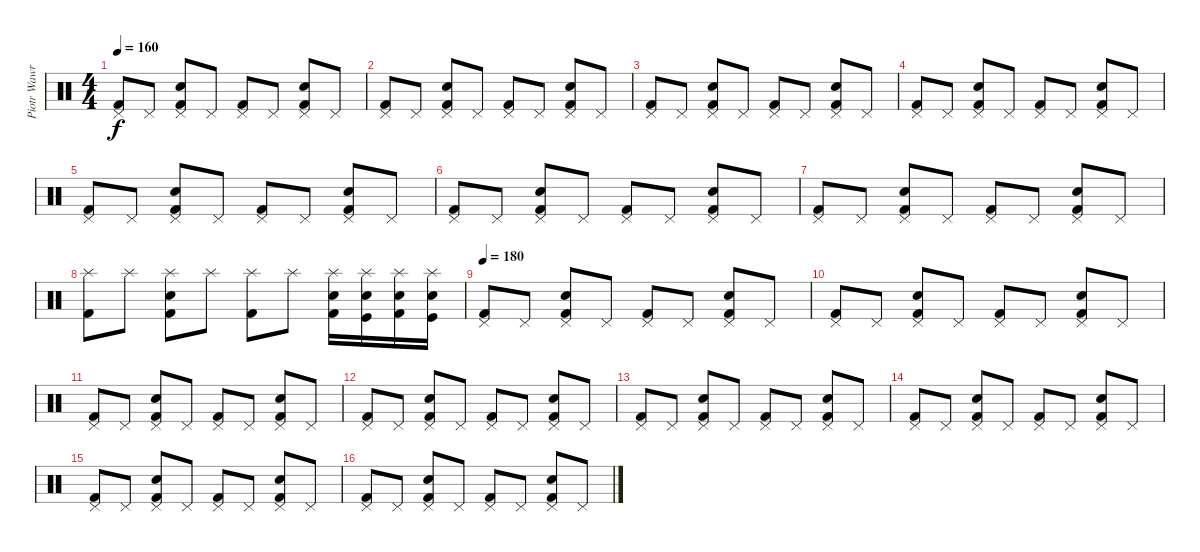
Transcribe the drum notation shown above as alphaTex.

\track ("Piotr Wawrzeniuk" "Piotr Wawr") {instrument percussion}
\staff {score}
\articulation defaults
\ts (4 4)
\tempo 160
\clef neutral
\ks c
("Pedal Hi-Hat (hit)" "Kick (hit) 2").8{dy f} "Pedal Hi-Hat (hit)".8 ("Snare (hit) 2" "Pedal Hi-Hat (hit)" "Kick (hit) 2").8 "Pedal Hi-Hat (hit)".8 ("Pedal Hi-Hat (hit)" "Kick (hit) 2").8 "Pedal Hi-Hat (hit)".8 ("Snare (hit) 2" "Pedal Hi-Hat (hit)" "Kick (hit) 2").8 "Pedal Hi-Hat (hit)".8 |
("Pedal Hi-Hat (hit)" "Kick (hit) 2").8 "Pedal Hi-Hat (hit)".8 ("Snare (hit) 2" "Pedal Hi-Hat (hit)" "Kick (hit) 2").8 "Pedal Hi-Hat (hit)".8 ("Pedal Hi-Hat (hit)" "Kick (hit) 2").8 "Pedal Hi-Hat (hit)".8 ("Snare (hit) 2" "Pedal Hi-Hat (hit)" "Kick (hit) 2").8 "Pedal Hi-Hat (hit)".8 |
("Pedal Hi-Hat (hit)" "Kick (hit) 2").8 "Pedal Hi-Hat (hit)".8 ("Snare (hit) 2" "Pedal Hi-Hat (hit)" "Kick (hit) 2").8 "Pedal Hi-Hat (hit)".8 ("Pedal Hi-Hat (hit)" "Kick (hit) 2").8 "Pedal Hi-Hat (hit)".8 ("Snare (hit) 2" "Pedal Hi-Hat (hit)" "Kick (hit) 2").8 "Pedal Hi-Hat (hit)".8 |
("Pedal Hi-Hat (hit)" "Kick (hit) 2").8 "Pedal Hi-Hat (hit)".8 ("Snare (hit) 2" "Pedal Hi-Hat (hit)" "Kick (hit) 2").8 "Pedal Hi-Hat (hit)".8 ("Pedal Hi-Hat (hit)" "Kick (hit) 2").8 "Pedal Hi-Hat (hit)".8 ("Snare (hit) 2" "Pedal Hi-Hat (hit)" "Kick (hit) 2").8 "Pedal Hi-Hat (hit)".8 |
("Pedal Hi-Hat (hit)" "Kick (hit) 2").8 "Pedal Hi-Hat (hit)".8 ("Snare (hit) 2" "Pedal Hi-Hat (hit)" "Kick (hit) 2").8 "Pedal Hi-Hat (hit)".8 ("Pedal Hi-Hat (hit)" "Kick (hit) 2").8 "Pedal Hi-Hat (hit)".8 ("Snare (hit) 2" "Pedal Hi-Hat (hit)" "Kick (hit) 2").8 "Pedal Hi-Hat (hit)".8 |
("Pedal Hi-Hat (hit)" "Kick (hit) 2").8 "Pedal Hi-Hat (hit)".8 ("Snare (hit) 2" "Pedal Hi-Hat (hit)" "Kick (hit) 2").8 "Pedal Hi-Hat (hit)".8 ("Pedal Hi-Hat (hit)" "Kick (hit) 2").8 "Pedal Hi-Hat (hit)".8 ("Snare (hit) 2" "Pedal Hi-Hat (hit)" "Kick (hit) 2").8 "Pedal Hi-Hat (hit)".8 |
("Pedal Hi-Hat (hit)" "Kick (hit) 2").8 "Pedal Hi-Hat (hit)".8 ("Snare (hit) 2" "Pedal Hi-Hat (hit)" "Kick (hit) 2").8 "Pedal Hi-Hat (hit)".8 ("Pedal Hi-Hat (hit)" "Kick (hit) 2").8 "Pedal Hi-Hat (hit)".8 ("Snare (hit) 2" "Pedal Hi-Hat (hit)" "Kick (hit) 2").8 "Pedal Hi-Hat (hit)".8 |
("Splash (hit)" "Kick (hit) 2").8 "Splash (hit)".8 ("Snare (hit) 2" "Splash (hit)" "Kick (hit) 2").8 "Splash (hit)".8 ("Splash (hit)" "Kick (hit) 2").8 "Splash (hit)".8 ("Snare (hit) 2" "Splash (hit)" "Kick (hit) 2").16 ("Snare (hit) 2" "Splash (hit)" "Kick (hit)").16 ("Snare (hit) 2" "Splash (hit)" "Kick (hit) 2").16 ("Snare (hit) 2" "Splash (hit)" "Kick (hit)").16 |
\tempo 180
("Pedal Hi-Hat (hit)" "Kick (hit) 2").8 "Pedal Hi-Hat (hit)".8 ("Snare (hit) 2" "Pedal Hi-Hat (hit)" "Kick (hit) 2").8 "Pedal Hi-Hat (hit)".8 ("Pedal Hi-Hat (hit)" "Kick (hit) 2").8 "Pedal Hi-Hat (hit)".8 ("Snare (hit) 2" "Pedal Hi-Hat (hit)" "Kick (hit) 2").8 "Pedal Hi-Hat (hit)".8 |
("Pedal Hi-Hat (hit)" "Kick (hit) 2").8 "Pedal Hi-Hat (hit)".8 ("Snare (hit) 2" "Pedal Hi-Hat (hit)" "Kick (hit) 2").8 "Pedal Hi-Hat (hit)".8 ("Pedal Hi-Hat (hit)" "Kick (hit) 2").8 "Pedal Hi-Hat (hit)".8 ("Snare (hit) 2" "Pedal Hi-Hat (hit)" "Kick (hit) 2").8 "Pedal Hi-Hat (hit)".8 |
("Pedal Hi-Hat (hit)" "Kick (hit) 2").8 "Pedal Hi-Hat (hit)".8 ("Snare (hit) 2" "Pedal Hi-Hat (hit)" "Kick (hit) 2").8 "Pedal Hi-Hat (hit)".8 ("Pedal Hi-Hat (hit)" "Kick (hit) 2").8 "Pedal Hi-Hat (hit)".8 ("Snare (hit) 2" "Pedal Hi-Hat (hit)" "Kick (hit) 2").8 "Pedal Hi-Hat (hit)".8 |
("Pedal Hi-Hat (hit)" "Kick (hit) 2").8 "Pedal Hi-Hat (hit)".8 ("Snare (hit) 2" "Pedal Hi-Hat (hit)" "Kick (hit) 2").8 "Pedal Hi-Hat (hit)".8 ("Pedal Hi-Hat (hit)" "Kick (hit) 2").8 "Pedal Hi-Hat (hit)".8 ("Snare (hit) 2" "Pedal Hi-Hat (hit)" "Kick (hit) 2").8 "Pedal Hi-Hat (hit)".8 |
("Pedal Hi-Hat (hit)" "Kick (hit) 2").8 "Pedal Hi-Hat (hit)".8 ("Snare (hit) 2" "Pedal Hi-Hat (hit)" "Kick (hit) 2").8 "Pedal Hi-Hat (hit)".8 ("Pedal Hi-Hat (hit)" "Kick (hit) 2").8 "Pedal Hi-Hat (hit)".8 ("Snare (hit) 2" "Pedal Hi-Hat (hit)" "Kick (hit) 2").8 "Pedal Hi-Hat (hit)".8 |
("Pedal Hi-Hat (hit)" "Kick (hit) 2").8 "Pedal Hi-Hat (hit)".8 ("Snare (hit) 2" "Pedal Hi-Hat (hit)" "Kick (hit) 2").8 "Pedal Hi-Hat (hit)".8 ("Pedal Hi-Hat (hit)" "Kick (hit) 2").8 "Pedal Hi-Hat (hit)".8 ("Snare (hit) 2" "Pedal Hi-Hat (hit)" "Kick (hit) 2").8 "Pedal Hi-Hat (hit)".8 |
("Pedal Hi-Hat (hit)" "Kick (hit) 2").8 "Pedal Hi-Hat (hit)".8 ("Snare (hit) 2" "Pedal Hi-Hat (hit)" "Kick (hit) 2").8 "Pedal Hi-Hat (hit)".8 ("Pedal Hi-Hat (hit)" "Kick (hit) 2").8 "Pedal Hi-Hat (hit)".8 ("Snare (hit) 2" "Pedal Hi-Hat (hit)" "Kick (hit) 2").8 "Pedal Hi-Hat (hit)".8 |
("Pedal Hi-Hat (hit)" "Kick (hit) 2").8 "Pedal Hi-Hat (hit)".8 ("Snare (hit) 2" "Pedal Hi-Hat (hit)" "Kick (hit) 2").8 "Pedal Hi-Hat (hit)".8 ("Pedal Hi-Hat (hit)" "Kick (hit) 2").8 "Pedal Hi-Hat (hit)".8 ("Snare (hit) 2" "Pedal Hi-Hat (hit)" "Kick (hit) 2").8 "Pedal Hi-Hat (hit)".8
